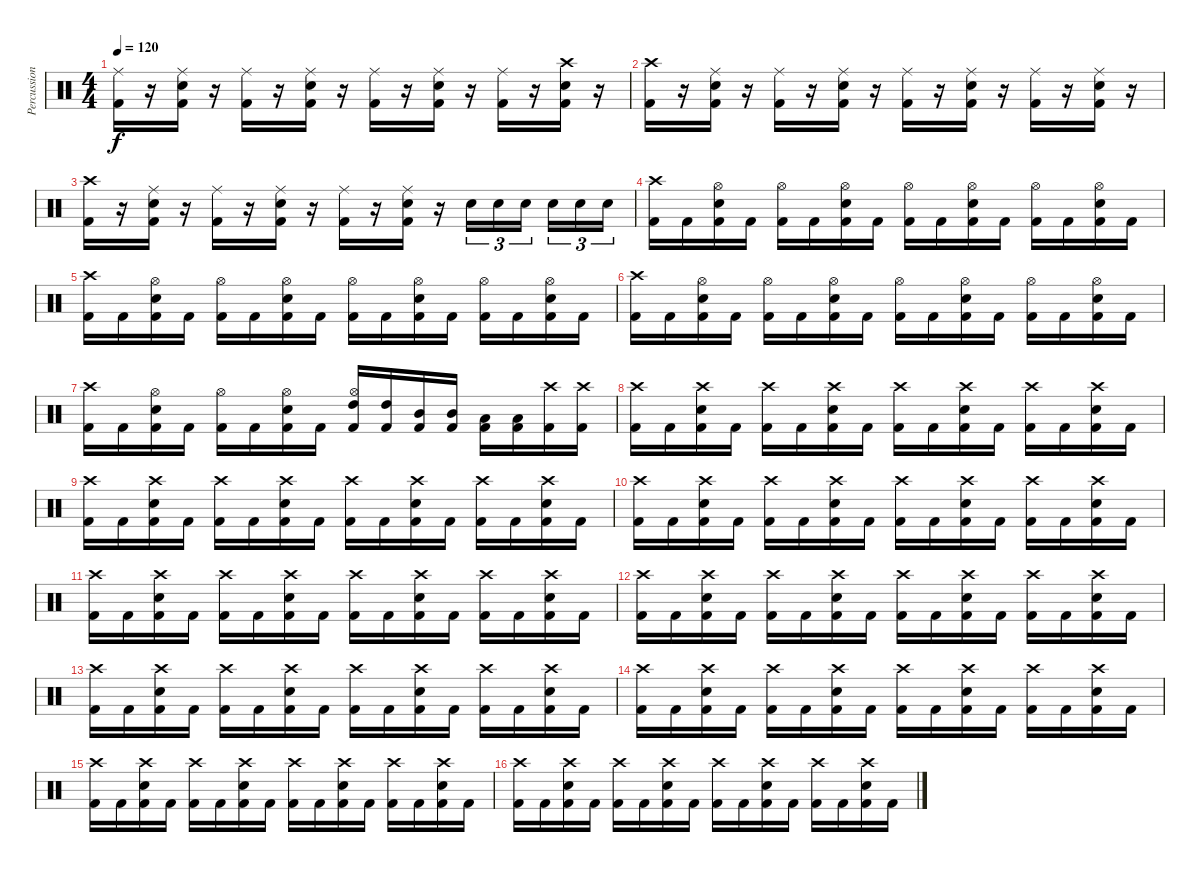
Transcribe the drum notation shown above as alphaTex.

\track ("Percussion" "Percussion") {instrument percussion}
\staff {score}
\articulation defaults
\ts (4 4)
\tempo 120
\clef neutral
\ks c
("Ride (middle)" "Kick (hit) 2").16{dy f} r.16 ("Ride (middle)" "Snare (hit) 2" "Kick (hit) 2").16 r.16 ("Ride (middle)" "Kick (hit) 2").16 r.16 ("Ride (middle)" "Snare (hit) 2" "Kick (hit) 2").16 r.16 ("Ride (middle)" "Kick (hit) 2").16 r.16 ("Ride (middle)" "Snare (hit) 2" "Kick (hit) 2").16 r.16 ("Ride (middle)" "Kick (hit) 2").16 r.16 ("Crash high (hit)" "Snare (hit) 2" "Kick (hit) 2").16 r.16 |
("Crash high (hit)" "Kick (hit) 2").16 r.16 ("Ride (middle)" "Snare (hit) 2" "Kick (hit) 2").16 r.16 ("Ride (middle)" "Kick (hit) 2").16 r.16 ("Ride (middle)" "Snare (hit) 2" "Kick (hit) 2").16 r.16 ("Ride (middle)" "Kick (hit) 2").16 r.16 ("Ride (middle)" "Snare (hit) 2" "Kick (hit) 2").16 r.16 ("Ride (middle)" "Kick (hit) 2").16 r.16 ("Ride (middle)" "Snare (hit) 2" "Kick (hit) 2").16 r.16 |
("Crash high (hit)" "Kick (hit) 2").16 r.16 ("Ride (middle)" "Snare (hit) 2" "Kick (hit) 2").16 r.16 ("Ride (middle)" "Kick (hit) 2").16 r.16 ("Ride (middle)" "Snare (hit) 2" "Kick (hit) 2").16 r.16 ("Ride (middle)" "Kick (hit) 2").16 r.16 ("Ride (middle)" "Snare (hit) 2" "Kick (hit) 2").16 r.16 "Snare (hit) 2".16{tu (3 2)} "Snare (hit) 2".16{tu (3 2)} "Snare (hit) 2".16{tu (3 2) beam splitsecondary} "Snare (hit) 2".16{tu (3 2)} "Snare (hit) 2".16{tu (3 2)} "Snare (hit) 2".16{tu (3 2)} |
("Crash high (hit)" "Kick (hit) 2").16 "Kick (hit) 2".16 ("Hi-Hat (open)" "Snare (hit) 2" "Kick (hit) 2").16 "Kick (hit) 2".16 ("Hi-Hat (open)" "Kick (hit) 2").16 "Kick (hit) 2".16 ("Hi-Hat (open)" "Snare (hit) 2" "Kick (hit) 2").16 "Kick (hit) 2".16 ("Hi-Hat (open)" "Kick (hit) 2").16 "Kick (hit) 2".16 ("Hi-Hat (open)" "Snare (hit) 2" "Kick (hit) 2").16 "Kick (hit) 2".16 ("Hi-Hat (open)" "Kick (hit) 2").16 "Kick (hit) 2".16 ("Hi-Hat (open)" "Snare (hit) 2" "Kick (hit) 2").16 "Kick (hit) 2".16 |
("Crash high (hit)" "Kick (hit) 2").16 "Kick (hit) 2".16 ("Hi-Hat (open)" "Snare (hit) 2" "Kick (hit) 2").16 "Kick (hit) 2".16 ("Hi-Hat (open)" "Kick (hit) 2").16 "Kick (hit) 2".16 ("Hi-Hat (open)" "Snare (hit) 2" "Kick (hit) 2").16 "Kick (hit) 2".16 ("Hi-Hat (open)" "Kick (hit) 2").16 "Kick (hit) 2".16 ("Hi-Hat (open)" "Snare (hit) 2" "Kick (hit) 2").16 "Kick (hit) 2".16 ("Hi-Hat (open)" "Kick (hit) 2").16 "Kick (hit) 2".16 ("Hi-Hat (open)" "Snare (hit) 2" "Kick (hit) 2").16 "Kick (hit) 2".16 |
("Crash high (hit)" "Kick (hit) 2").16 "Kick (hit) 2".16 ("Hi-Hat (open)" "Snare (hit) 2" "Kick (hit) 2").16 "Kick (hit) 2".16 ("Hi-Hat (open)" "Kick (hit) 2").16 "Kick (hit) 2".16 ("Hi-Hat (open)" "Snare (hit) 2" "Kick (hit) 2").16 "Kick (hit) 2".16 ("Hi-Hat (open)" "Kick (hit) 2").16 "Kick (hit) 2".16 ("Hi-Hat (open)" "Snare (hit) 2" "Kick (hit) 2").16 "Kick (hit) 2".16 ("Hi-Hat (open)" "Kick (hit) 2").16 "Kick (hit) 2".16 ("Hi-Hat (open)" "Snare (hit) 2" "Kick (hit) 2").16 "Kick (hit) 2".16 |
("Crash high (hit)" "Kick (hit) 2").16 "Kick (hit) 2".16 ("Hi-Hat (open)" "Snare (hit) 2" "Kick (hit) 2").16 "Kick (hit) 2".16 ("Hi-Hat (open)" "Kick (hit) 2").16 "Kick (hit) 2".16 ("Hi-Hat (open)" "Snare (hit) 2" "Kick (hit) 2").16 "Kick (hit) 2".16 ("Hi-Hat (open)" "High Tom (hit)" "Kick (hit) 2").16 ("High Tom (hit)" "Kick (hit) 2").16 ("Mid Tom (hit)" "Kick (hit) 2").16 ("Mid Tom (hit)" "Kick (hit) 2").16 ("Low Tom (hit)" "Kick (hit) 2").16 ("Low Tom (hit)" "Kick (hit) 2").16 ("Crash high (hit)" "Kick (hit) 2").16 ("Crash high (hit)" "Kick (hit) 2").16 |
("Crash high (hit)" "Kick (hit) 2").16 "Kick (hit) 2".16 ("Crash high (hit)" "Snare (hit) 2" "Kick (hit) 2").16 "Kick (hit) 2".16 ("Crash high (hit)" "Kick (hit) 2").16 "Kick (hit) 2".16 ("Crash high (hit)" "Snare (hit) 2" "Kick (hit) 2").16 "Kick (hit) 2".16 ("Crash high (hit)" "Kick (hit) 2").16 "Kick (hit) 2".16 ("Crash high (hit)" "Snare (hit) 2" "Kick (hit) 2").16 "Kick (hit) 2".16 ("Crash high (hit)" "Kick (hit) 2").16 "Kick (hit) 2".16 ("Crash high (hit)" "Snare (hit) 2" "Kick (hit) 2").16 "Kick (hit) 2".16 |
("Crash high (hit)" "Kick (hit) 2").16 "Kick (hit) 2".16 ("Crash high (hit)" "Snare (hit) 2" "Kick (hit) 2").16 "Kick (hit) 2".16 ("Crash high (hit)" "Kick (hit) 2").16 "Kick (hit) 2".16 ("Crash high (hit)" "Snare (hit) 2" "Kick (hit) 2").16 "Kick (hit) 2".16 ("Crash high (hit)" "Kick (hit) 2").16 "Kick (hit) 2".16 ("Crash high (hit)" "Snare (hit) 2" "Kick (hit) 2").16 "Kick (hit) 2".16 ("Crash high (hit)" "Kick (hit) 2").16 "Kick (hit) 2".16 ("Crash high (hit)" "Snare (hit) 2" "Kick (hit) 2").16 "Kick (hit) 2".16 |
("Crash high (hit)" "Kick (hit) 2").16 "Kick (hit) 2".16 ("Crash high (hit)" "Snare (hit) 2" "Kick (hit) 2").16 "Kick (hit) 2".16 ("Crash high (hit)" "Kick (hit) 2").16 "Kick (hit) 2".16 ("Crash high (hit)" "Snare (hit) 2" "Kick (hit) 2").16 "Kick (hit) 2".16 ("Crash high (hit)" "Kick (hit) 2").16 "Kick (hit) 2".16 ("Crash high (hit)" "Snare (hit) 2" "Kick (hit) 2").16 "Kick (hit) 2".16 ("Crash high (hit)" "Kick (hit) 2").16 "Kick (hit) 2".16 ("Crash high (hit)" "Snare (hit) 2" "Kick (hit) 2").16 "Kick (hit) 2".16 |
("Crash high (hit)" "Kick (hit) 2").16 "Kick (hit) 2".16 ("Crash high (hit)" "Snare (hit) 2" "Kick (hit) 2").16 "Kick (hit) 2".16 ("Crash high (hit)" "Kick (hit) 2").16 "Kick (hit) 2".16 ("Crash high (hit)" "Snare (hit) 2" "Kick (hit) 2").16 "Kick (hit) 2".16 ("Crash high (hit)" "Kick (hit) 2").16 "Kick (hit) 2".16 ("Crash high (hit)" "Snare (hit) 2" "Kick (hit) 2").16 "Kick (hit) 2".16 ("Crash high (hit)" "Kick (hit) 2").16 "Kick (hit) 2".16 ("Crash high (hit)" "Snare (hit) 2" "Kick (hit) 2").16 "Kick (hit) 2".16 |
("Crash high (hit)" "Kick (hit) 2").16 "Kick (hit) 2".16 ("Crash high (hit)" "Snare (hit) 2" "Kick (hit) 2").16 "Kick (hit) 2".16 ("Crash high (hit)" "Kick (hit) 2").16 "Kick (hit) 2".16 ("Crash high (hit)" "Snare (hit) 2" "Kick (hit) 2").16 "Kick (hit) 2".16 ("Crash high (hit)" "Kick (hit) 2").16 "Kick (hit) 2".16 ("Crash high (hit)" "Snare (hit) 2" "Kick (hit) 2").16 "Kick (hit) 2".16 ("Crash high (hit)" "Kick (hit) 2").16 "Kick (hit) 2".16 ("Crash high (hit)" "Snare (hit) 2" "Kick (hit) 2").16 "Kick (hit) 2".16 |
("Crash high (hit)" "Kick (hit) 2").16 "Kick (hit) 2".16 ("Crash high (hit)" "Snare (hit) 2" "Kick (hit) 2").16 "Kick (hit) 2".16 ("Crash high (hit)" "Kick (hit) 2").16 "Kick (hit) 2".16 ("Crash high (hit)" "Snare (hit) 2" "Kick (hit) 2").16 "Kick (hit) 2".16 ("Crash high (hit)" "Kick (hit) 2").16 "Kick (hit) 2".16 ("Crash high (hit)" "Snare (hit) 2" "Kick (hit) 2").16 "Kick (hit) 2".16 ("Crash high (hit)" "Kick (hit) 2").16 "Kick (hit) 2".16 ("Crash high (hit)" "Snare (hit) 2" "Kick (hit) 2").16 "Kick (hit) 2".16 |
("Crash high (hit)" "Kick (hit) 2").16 "Kick (hit) 2".16 ("Crash high (hit)" "Snare (hit) 2" "Kick (hit) 2").16 "Kick (hit) 2".16 ("Crash high (hit)" "Kick (hit) 2").16 "Kick (hit) 2".16 ("Crash high (hit)" "Snare (hit) 2" "Kick (hit) 2").16 "Kick (hit) 2".16 ("Crash high (hit)" "Kick (hit) 2").16 "Kick (hit) 2".16 ("Crash high (hit)" "Snare (hit) 2" "Kick (hit) 2").16 "Kick (hit) 2".16 ("Crash high (hit)" "Kick (hit) 2").16 "Kick (hit) 2".16 ("Crash high (hit)" "Snare (hit) 2" "Kick (hit) 2").16 "Kick (hit) 2".16 |
("Crash high (hit)" "Kick (hit) 2").16 "Kick (hit) 2".16 ("Crash high (hit)" "Snare (hit) 2" "Kick (hit) 2").16 "Kick (hit) 2".16 ("Crash high (hit)" "Kick (hit) 2").16 "Kick (hit) 2".16 ("Crash high (hit)" "Snare (hit) 2" "Kick (hit) 2").16 "Kick (hit) 2".16 ("Crash high (hit)" "Kick (hit) 2").16 "Kick (hit) 2".16 ("Crash high (hit)" "Snare (hit) 2" "Kick (hit) 2").16 "Kick (hit) 2".16 ("Crash high (hit)" "Kick (hit) 2").16 "Kick (hit) 2".16 ("Crash high (hit)" "Snare (hit) 2" "Kick (hit) 2").16 "Kick (hit) 2".16 |
("Crash high (hit)" "Kick (hit) 2").16 "Kick (hit) 2".16 ("Crash high (hit)" "Snare (hit) 2" "Kick (hit) 2").16 "Kick (hit) 2".16 ("Crash high (hit)" "Kick (hit) 2").16 "Kick (hit) 2".16 ("Crash high (hit)" "Snare (hit) 2" "Kick (hit) 2").16 "Kick (hit) 2".16 ("Crash high (hit)" "Kick (hit) 2").16 "Kick (hit) 2".16 ("Crash high (hit)" "Snare (hit) 2" "Kick (hit) 2").16 "Kick (hit) 2".16 ("Crash high (hit)" "Kick (hit) 2").16 "Kick (hit) 2".16 ("Crash high (hit)" "Snare (hit) 2" "Kick (hit) 2").16 "Kick (hit) 2".16
